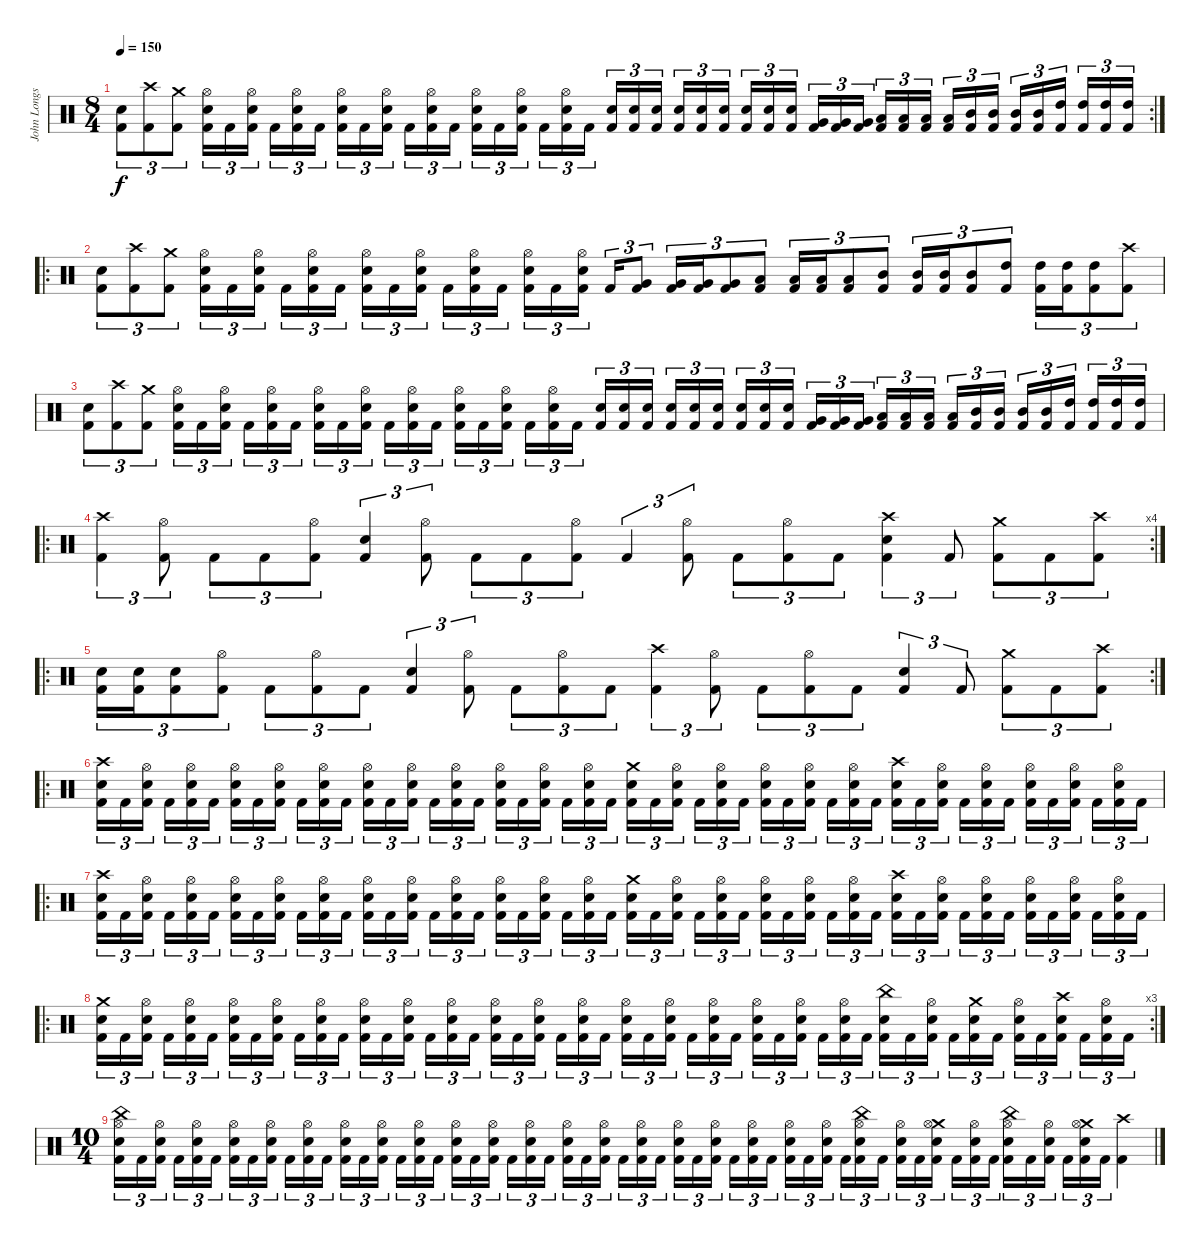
\track ("John Longstreth" "John Longs") {instrument percussion}
\staff {score}
\articulation defaults
\rc 2
\ts (8 4)
\tempo 150
\clef neutral
\ks c
("Electric Snare (hit)" "Kick (hit) 2").8{tu (3 2) dy f} ("Crash high (hit)" "Kick (hit) 2").8{tu (3 2)} ("Crash medium (hit)" "Kick (hit) 2").8{tu (3 2)} ("Hi-Hat (open)" "Electric Snare (hit)" "Kick (hit) 2").16{tu (3 2)} "Kick (hit) 2".16{tu (3 2)} ("Hi-Hat (open)" "Electric Snare (hit)" "Kick (hit) 2").16{tu (3 2) beam splitsecondary} "Kick (hit) 2".16{tu (3 2)} ("Hi-Hat (open)" "Electric Snare (hit)" "Kick (hit) 2").16{tu (3 2)} "Kick (hit) 2".16{tu (3 2)} ("Hi-Hat (open)" "Electric Snare (hit)" "Kick (hit) 2").16{tu (3 2)} "Kick (hit) 2".16{tu (3 2)} ("Hi-Hat (open)" "Electric Snare (hit)" "Kick (hit) 2").16{tu (3 2) beam splitsecondary} "Kick (hit) 2".16{tu (3 2)} ("Hi-Hat (open)" "Electric Snare (hit)" "Kick (hit) 2").16{tu (3 2)} "Kick (hit) 2".16{tu (3 2)} ("Hi-Hat (open)" "Electric Snare (hit)" "Kick (hit) 2").16{tu (3 2)} "Kick (hit) 2".16{tu (3 2)} ("Hi-Hat (open)" "Electric Snare (hit)" "Kick (hit) 2").16{tu (3 2) beam splitsecondary} "Kick (hit) 2".16{tu (3 2)} ("Hi-Hat (open)" "Electric Snare (hit)" "Kick (hit) 2").16{tu (3 2)} "Kick (hit) 2".16{tu (3 2)} ("Electric Snare (hit)" "Kick (hit) 2").16{tu (3 2)} ("Electric Snare (hit)" "Kick (hit) 2").16{tu (3 2)} ("Electric Snare (hit)" "Kick (hit) 2").16{tu (3 2) beam splitsecondary} ("Electric Snare (hit)" "Kick (hit) 2").16{tu (3 2)} ("Electric Snare (hit)" "Kick (hit) 2").16{tu (3 2)} ("Electric Snare (hit)" "Kick (hit) 2").16{tu (3 2)} ("Electric Snare (hit)" "Kick (hit) 2").16{tu (3 2)} ("Electric Snare (hit)" "Kick (hit) 2").16{tu (3 2)} ("Electric Snare (hit)" "Kick (hit) 2").16{tu (3 2) beam splitsecondary} ("Very Low Tom (hit)" "Kick (hit) 2").16{tu (3 2)} ("Very Low Tom (hit)" "Kick (hit) 2").16{tu (3 2)} ("Very Low Tom (hit)" "Kick (hit) 2").16{tu (3 2)} ("Low Tom (hit)" "Kick (hit) 2").16{tu (3 2)} ("Low Tom (hit)" "Kick (hit) 2").16{tu (3 2)} ("Low Tom (hit)" "Kick (hit) 2").16{tu (3 2) beam splitsecondary} ("Low Tom (hit)" "Kick (hit) 2").16{tu (3 2)} ("Mid Tom (hit)" "Kick (hit) 2").16{tu (3 2)} ("Mid Tom (hit)" "Kick (hit) 2").16{tu (3 2)} ("Mid Tom (hit)" "Kick (hit) 2").16{tu (3 2)} ("Mid Tom (hit)" "Kick (hit) 2").16{tu (3 2)} ("High Tom (hit)" "Kick (hit) 2").16{tu (3 2) beam splitsecondary} ("High Tom (hit)" "Kick (hit) 2").16{tu (3 2)} ("High Tom (hit)" "Kick (hit) 2").16{tu (3 2)} ("High Tom (hit)" "Kick (hit) 2").16{tu (3 2)} |
\ro
("Electric Snare (hit)" "Kick (hit) 2").8{tu (3 2)} ("Crash high (hit)" "Kick (hit) 2").8{tu (3 2)} ("Crash medium (hit)" "Kick (hit) 2").8{tu (3 2)} ("Hi-Hat (open)" "Electric Snare (hit)" "Kick (hit) 2").16{tu (3 2)} "Kick (hit) 2".16{tu (3 2)} ("Hi-Hat (open)" "Electric Snare (hit)" "Kick (hit) 2").16{tu (3 2) beam splitsecondary} "Kick (hit) 2".16{tu (3 2)} ("Hi-Hat (open)" "Electric Snare (hit)" "Kick (hit) 2").16{tu (3 2)} "Kick (hit) 2".16{tu (3 2)} ("Hi-Hat (open)" "Electric Snare (hit)" "Kick (hit) 2").16{tu (3 2)} "Kick (hit) 2".16{tu (3 2)} ("Hi-Hat (open)" "Electric Snare (hit)" "Kick (hit) 2").16{tu (3 2) beam splitsecondary} "Kick (hit) 2".16{tu (3 2)} ("Hi-Hat (open)" "Electric Snare (hit)" "Kick (hit) 2").16{tu (3 2)} "Kick (hit) 2".16{tu (3 2)} ("Hi-Hat (open)" "Electric Snare (hit)" "Kick (hit) 2").16{tu (3 2)} "Kick (hit) 2".16{tu (3 2)} ("Hi-Hat (open)" "Electric Snare (hit)" "Kick (hit) 2").16{tu (3 2) beam splitsecondary} "Kick (hit) 2".16{tu (3 2)} ("Very Low Tom (hit)" "Kick (hit) 2").8{tu (3 2)} ("Very Low Tom (hit)" "Kick (hit) 2").16{tu (3 2)} ("Very Low Tom (hit)" "Kick (hit) 2").16{tu (3 2)} ("Very Low Tom (hit)" "Kick (hit) 2").8{tu (3 2)} ("Low Tom (hit)" "Kick (hit) 2").8{tu (3 2)} ("Low Tom (hit)" "Kick (hit) 2").16{tu (3 2)} ("Low Tom (hit)" "Kick (hit) 2").16{tu (3 2)} ("Low Tom (hit)" "Kick (hit) 2").8{tu (3 2)} ("Mid Tom (hit)" "Kick (hit) 2").8{tu (3 2)} ("Mid Tom (hit)" "Kick (hit) 2").16{tu (3 2)} ("Mid Tom (hit)" "Kick (hit) 2").16{tu (3 2)} ("Mid Tom (hit)" "Kick (hit) 2").8{tu (3 2)} ("High Tom (hit)" "Kick (hit) 2").8{tu (3 2)} ("High Tom (hit)" "Kick (hit) 2").16{tu (3 2)} ("High Tom (hit)" "Kick (hit) 2").16{tu (3 2)} ("High Tom (hit)" "Kick (hit) 2").8{tu (3 2)} ("Crash high (hit)" "Kick (hit) 2").8{tu (3 2)} |
("Electric Snare (hit)" "Kick (hit) 2").8{tu (3 2)} ("Crash high (hit)" "Kick (hit) 2").8{tu (3 2)} ("Crash medium (hit)" "Kick (hit) 2").8{tu (3 2)} ("Hi-Hat (open)" "Electric Snare (hit)" "Kick (hit) 2").16{tu (3 2)} "Kick (hit) 2".16{tu (3 2)} ("Hi-Hat (open)" "Electric Snare (hit)" "Kick (hit) 2").16{tu (3 2) beam splitsecondary} "Kick (hit) 2".16{tu (3 2)} ("Hi-Hat (open)" "Electric Snare (hit)" "Kick (hit) 2").16{tu (3 2)} "Kick (hit) 2".16{tu (3 2)} ("Hi-Hat (open)" "Electric Snare (hit)" "Kick (hit) 2").16{tu (3 2)} "Kick (hit) 2".16{tu (3 2)} ("Hi-Hat (open)" "Electric Snare (hit)" "Kick (hit) 2").16{tu (3 2) beam splitsecondary} "Kick (hit) 2".16{tu (3 2)} ("Hi-Hat (open)" "Electric Snare (hit)" "Kick (hit) 2").16{tu (3 2)} "Kick (hit) 2".16{tu (3 2)} ("Hi-Hat (open)" "Electric Snare (hit)" "Kick (hit) 2").16{tu (3 2)} "Kick (hit) 2".16{tu (3 2)} ("Hi-Hat (open)" "Electric Snare (hit)" "Kick (hit) 2").16{tu (3 2) beam splitsecondary} "Kick (hit) 2".16{tu (3 2)} ("Hi-Hat (open)" "Electric Snare (hit)" "Kick (hit) 2").16{tu (3 2)} "Kick (hit) 2".16{tu (3 2)} ("Electric Snare (hit)" "Kick (hit) 2").16{tu (3 2)} ("Electric Snare (hit)" "Kick (hit) 2").16{tu (3 2)} ("Electric Snare (hit)" "Kick (hit) 2").16{tu (3 2) beam splitsecondary} ("Electric Snare (hit)" "Kick (hit) 2").16{tu (3 2)} ("Electric Snare (hit)" "Kick (hit) 2").16{tu (3 2)} ("Electric Snare (hit)" "Kick (hit) 2").16{tu (3 2)} ("Electric Snare (hit)" "Kick (hit) 2").16{tu (3 2)} ("Electric Snare (hit)" "Kick (hit) 2").16{tu (3 2)} ("Electric Snare (hit)" "Kick (hit) 2").16{tu (3 2) beam splitsecondary} ("Very Low Tom (hit)" "Kick (hit) 2").16{tu (3 2)} ("Very Low Tom (hit)" "Kick (hit) 2").16{tu (3 2)} ("Very Low Tom (hit)" "Kick (hit) 2").16{tu (3 2)} ("Low Tom (hit)" "Kick (hit) 2").16{tu (3 2)} ("Low Tom (hit)" "Kick (hit) 2").16{tu (3 2)} ("Low Tom (hit)" "Kick (hit) 2").16{tu (3 2) beam splitsecondary} ("Low Tom (hit)" "Kick (hit) 2").16{tu (3 2)} ("Mid Tom (hit)" "Kick (hit) 2").16{tu (3 2)} ("Mid Tom (hit)" "Kick (hit) 2").16{tu (3 2)} ("Mid Tom (hit)" "Kick (hit) 2").16{tu (3 2)} ("Mid Tom (hit)" "Kick (hit) 2").16{tu (3 2)} ("High Tom (hit)" "Kick (hit) 2").16{tu (3 2) beam splitsecondary} ("High Tom (hit)" "Kick (hit) 2").16{tu (3 2)} ("High Tom (hit)" "Kick (hit) 2").16{tu (3 2)} ("High Tom (hit)" "Kick (hit) 2").16{tu (3 2)} |
\ro
\rc 4
("Crash high (hit)" "Kick (hit) 2").4{tu (3 2)} ("Hi-Hat (open)" "Kick (hit) 2").8{tu (3 2)} "Kick (hit) 2".8{tu (3 2)} "Kick (hit) 2".8{tu (3 2)} ("Hi-Hat (open)" "Kick (hit) 2").8{tu (3 2)} ("Electric Snare (hit)" "Kick (hit) 2").4{tu (3 2)} ("Hi-Hat (open)" "Kick (hit) 2").8{tu (3 2)} "Kick (hit) 2".8{tu (3 2)} "Kick (hit) 2".8{tu (3 2)} ("Hi-Hat (open)" "Kick (hit) 2").8{tu (3 2)} "Kick (hit) 2".4{tu (3 2)} ("Hi-Hat (open)" "Kick (hit) 2").8{tu (3 2)} "Kick (hit) 2".8{tu (3 2)} ("Hi-Hat (open)" "Kick (hit) 2").8{tu (3 2)} "Kick (hit) 2".8{tu (3 2)} ("Crash high (hit)" "Electric Snare (hit)" "Kick (hit) 2").4{tu (3 2)} "Kick (hit) 2".8{tu (3 2)} ("Crash medium (hit)" "Kick (hit) 2").8{tu (3 2)} "Kick (hit) 2".8{tu (3 2)} ("Crash high (hit)" "Kick (hit) 2").8{tu (3 2)} |
\ro
\rc 2
("Electric Snare (hit)" "Kick (hit) 2").16{tu (3 2)} ("Electric Snare (hit)" "Kick (hit) 2").16{tu (3 2)} ("Electric Snare (hit)" "Kick (hit) 2").8{tu (3 2)} ("Hi-Hat (open)" "Kick (hit) 2").8{tu (3 2)} "Kick (hit) 2".8{tu (3 2)} ("Hi-Hat (open)" "Kick (hit) 2").8{tu (3 2)} "Kick (hit) 2".8{tu (3 2)} ("Electric Snare (hit)" "Kick (hit) 2").4{tu (3 2)} ("Hi-Hat (open)" "Kick (hit) 2").8{tu (3 2)} "Kick (hit) 2".8{tu (3 2)} ("Hi-Hat (open)" "Kick (hit) 2").8{tu (3 2)} "Kick (hit) 2".8{tu (3 2)} ("Crash high (hit)" "Kick (hit) 2").4{tu (3 2)} ("Hi-Hat (open)" "Kick (hit) 2").8{tu (3 2)} "Kick (hit) 2".8{tu (3 2)} ("Hi-Hat (open)" "Kick (hit) 2").8{tu (3 2)} "Kick (hit) 2".8{tu (3 2)} ("Electric Snare (hit)" "Kick (hit) 2").4{tu (3 2)} "Kick (hit) 2".8{tu (3 2)} ("Crash medium (hit)" "Kick (hit) 2").8{tu (3 2)} "Kick (hit) 2".8{tu (3 2)} ("Crash high (hit)" "Kick (hit) 2").8{tu (3 2)} |
\ro
("Crash high (hit)" "Electric Snare (hit)" "Kick (hit) 2").16{tu (3 2)} "Kick (hit) 2".16{tu (3 2)} ("Hi-Hat (open)" "Electric Snare (hit)" "Kick (hit) 2").16{tu (3 2) beam splitsecondary} "Kick (hit) 2".16{tu (3 2)} ("Hi-Hat (open)" "Electric Snare (hit)" "Kick (hit) 2").16{tu (3 2)} "Kick (hit) 2".16{tu (3 2)} ("Hi-Hat (open)" "Electric Snare (hit)" "Kick (hit) 2").16{tu (3 2)} "Kick (hit) 2".16{tu (3 2)} ("Hi-Hat (open)" "Electric Snare (hit)" "Kick (hit) 2").16{tu (3 2) beam splitsecondary} "Kick (hit) 2".16{tu (3 2)} ("Hi-Hat (open)" "Electric Snare (hit)" "Kick (hit) 2").16{tu (3 2)} "Kick (hit) 2".16{tu (3 2)} ("Hi-Hat (open)" "Electric Snare (hit)" "Kick (hit) 2").16{tu (3 2)} "Kick (hit) 2".16{tu (3 2)} ("Hi-Hat (open)" "Electric Snare (hit)" "Kick (hit) 2").16{tu (3 2) beam splitsecondary} "Kick (hit) 2".16{tu (3 2)} ("Hi-Hat (open)" "Electric Snare (hit)" "Kick (hit) 2").16{tu (3 2)} "Kick (hit) 2".16{tu (3 2)} ("Hi-Hat (open)" "Electric Snare (hit)" "Kick (hit) 2").16{tu (3 2)} "Kick (hit) 2".16{tu (3 2)} ("Hi-Hat (open)" "Electric Snare (hit)" "Kick (hit) 2").16{tu (3 2) beam splitsecondary} "Kick (hit) 2".16{tu (3 2)} ("Hi-Hat (open)" "Electric Snare (hit)" "Kick (hit) 2").16{tu (3 2)} "Kick (hit) 2".16{tu (3 2)} ("Crash medium (hit)" "Electric Snare (hit)" "Kick (hit) 2").16{tu (3 2)} "Kick (hit) 2".16{tu (3 2)} ("Hi-Hat (open)" "Electric Snare (hit)" "Kick (hit) 2").16{tu (3 2) beam splitsecondary} "Kick (hit) 2".16{tu (3 2)} ("Hi-Hat (open)" "Electric Snare (hit)" "Kick (hit) 2").16{tu (3 2)} "Kick (hit) 2".16{tu (3 2)} ("Hi-Hat (open)" "Electric Snare (hit)" "Kick (hit) 2").16{tu (3 2)} "Kick (hit) 2".16{tu (3 2)} ("Hi-Hat (open)" "Electric Snare (hit)" "Kick (hit) 2").16{tu (3 2) beam splitsecondary} "Kick (hit) 2".16{tu (3 2)} ("Hi-Hat (open)" "Electric Snare (hit)" "Kick (hit) 2").16{tu (3 2)} "Kick (hit) 2".16{tu (3 2)} ("Crash high (hit)" "Electric Snare (hit)" "Kick (hit) 2").16{tu (3 2)} "Kick (hit) 2".16{tu (3 2)} ("Hi-Hat (open)" "Electric Snare (hit)" "Kick (hit) 2").16{tu (3 2) beam splitsecondary} "Kick (hit) 2".16{tu (3 2)} ("Hi-Hat (open)" "Electric Snare (hit)" "Kick (hit) 2").16{tu (3 2)} "Kick (hit) 2".16{tu (3 2)} ("Hi-Hat (open)" "Electric Snare (hit)" "Kick (hit) 2").16{tu (3 2)} "Kick (hit) 2".16{tu (3 2)} ("Hi-Hat (open)" "Electric Snare (hit)" "Kick (hit) 2").16{tu (3 2) beam splitsecondary} "Kick (hit) 2".16{tu (3 2)} ("Hi-Hat (open)" "Electric Snare (hit)" "Kick (hit) 2").16{tu (3 2)} "Kick (hit) 2".16{tu (3 2)} |
\ro
("Crash high (hit)" "Electric Snare (hit)" "Kick (hit) 2").16{tu (3 2)} "Kick (hit) 2".16{tu (3 2)} ("Hi-Hat (open)" "Electric Snare (hit)" "Kick (hit) 2").16{tu (3 2) beam splitsecondary} "Kick (hit) 2".16{tu (3 2)} ("Hi-Hat (open)" "Electric Snare (hit)" "Kick (hit) 2").16{tu (3 2)} "Kick (hit) 2".16{tu (3 2)} ("Hi-Hat (open)" "Electric Snare (hit)" "Kick (hit) 2").16{tu (3 2)} "Kick (hit) 2".16{tu (3 2)} ("Hi-Hat (open)" "Electric Snare (hit)" "Kick (hit) 2").16{tu (3 2) beam splitsecondary} "Kick (hit) 2".16{tu (3 2)} ("Hi-Hat (open)" "Electric Snare (hit)" "Kick (hit) 2").16{tu (3 2)} "Kick (hit) 2".16{tu (3 2)} ("Hi-Hat (open)" "Electric Snare (hit)" "Kick (hit) 2").16{tu (3 2)} "Kick (hit) 2".16{tu (3 2)} ("Hi-Hat (open)" "Electric Snare (hit)" "Kick (hit) 2").16{tu (3 2) beam splitsecondary} "Kick (hit) 2".16{tu (3 2)} ("Hi-Hat (open)" "Electric Snare (hit)" "Kick (hit) 2").16{tu (3 2)} "Kick (hit) 2".16{tu (3 2)} ("Hi-Hat (open)" "Electric Snare (hit)" "Kick (hit) 2").16{tu (3 2)} "Kick (hit) 2".16{tu (3 2)} ("Hi-Hat (open)" "Electric Snare (hit)" "Kick (hit) 2").16{tu (3 2) beam splitsecondary} "Kick (hit) 2".16{tu (3 2)} ("Hi-Hat (open)" "Electric Snare (hit)" "Kick (hit) 2").16{tu (3 2)} "Kick (hit) 2".16{tu (3 2)} ("Crash medium (hit)" "Electric Snare (hit)" "Kick (hit) 2").16{tu (3 2)} "Kick (hit) 2".16{tu (3 2)} ("Hi-Hat (open)" "Electric Snare (hit)" "Kick (hit) 2").16{tu (3 2) beam splitsecondary} "Kick (hit) 2".16{tu (3 2)} ("Hi-Hat (open)" "Electric Snare (hit)" "Kick (hit) 2").16{tu (3 2)} "Kick (hit) 2".16{tu (3 2)} ("Hi-Hat (open)" "Electric Snare (hit)" "Kick (hit) 2").16{tu (3 2)} "Kick (hit) 2".16{tu (3 2)} ("Hi-Hat (open)" "Electric Snare (hit)" "Kick (hit) 2").16{tu (3 2) beam splitsecondary} "Kick (hit) 2".16{tu (3 2)} ("Hi-Hat (open)" "Electric Snare (hit)" "Kick (hit) 2").16{tu (3 2)} "Kick (hit) 2".16{tu (3 2)} ("Crash high (hit)" "Electric Snare (hit)" "Kick (hit) 2").16{tu (3 2)} "Kick (hit) 2".16{tu (3 2)} ("Hi-Hat (open)" "Electric Snare (hit)" "Kick (hit) 2").16{tu (3 2) beam splitsecondary} "Kick (hit) 2".16{tu (3 2)} ("Hi-Hat (open)" "Electric Snare (hit)" "Kick (hit) 2").16{tu (3 2)} "Kick (hit) 2".16{tu (3 2)} ("Hi-Hat (open)" "Electric Snare (hit)" "Kick (hit) 2").16{tu (3 2)} "Kick (hit) 2".16{tu (3 2)} ("Hi-Hat (open)" "Electric Snare (hit)" "Kick (hit) 2").16{tu (3 2) beam splitsecondary} "Kick (hit) 2".16{tu (3 2)} ("Hi-Hat (open)" "Electric Snare (hit)" "Kick (hit) 2").16{tu (3 2)} "Kick (hit) 2".16{tu (3 2)} |
\ro
\rc 3
("Crash medium (hit)" "Electric Snare (hit)" "Kick (hit) 2").16{tu (3 2)} "Kick (hit) 2".16{tu (3 2)} ("Hi-Hat (open)" "Electric Snare (hit)" "Kick (hit) 2").16{tu (3 2) beam splitsecondary} "Kick (hit) 2".16{tu (3 2)} ("Hi-Hat (open)" "Electric Snare (hit)" "Kick (hit) 2").16{tu (3 2)} "Kick (hit) 2".16{tu (3 2)} ("Hi-Hat (open)" "Electric Snare (hit)" "Kick (hit) 2").16{tu (3 2)} "Kick (hit) 2".16{tu (3 2)} ("Hi-Hat (open)" "Electric Snare (hit)" "Kick (hit) 2").16{tu (3 2) beam splitsecondary} "Kick (hit) 2".16{tu (3 2)} ("Hi-Hat (open)" "Electric Snare (hit)" "Kick (hit) 2").16{tu (3 2)} "Kick (hit) 2".16{tu (3 2)} ("Hi-Hat (open)" "Electric Snare (hit)" "Kick (hit) 2").16{tu (3 2)} "Kick (hit) 2".16{tu (3 2)} ("Hi-Hat (open)" "Electric Snare (hit)" "Kick (hit) 2").16{tu (3 2) beam splitsecondary} "Kick (hit) 2".16{tu (3 2)} ("Hi-Hat (open)" "Electric Snare (hit)" "Kick (hit) 2").16{tu (3 2)} "Kick (hit) 2".16{tu (3 2)} ("Hi-Hat (open)" "Electric Snare (hit)" "Kick (hit) 2").16{tu (3 2)} "Kick (hit) 2".16{tu (3 2)} ("Hi-Hat (open)" "Electric Snare (hit)" "Kick (hit) 2").16{tu (3 2) beam splitsecondary} "Kick (hit) 2".16{tu (3 2)} ("Hi-Hat (open)" "Electric Snare (hit)" "Kick (hit) 2").16{tu (3 2)} "Kick (hit) 2".16{tu (3 2)} ("Hi-Hat (open)" "Electric Snare (hit)" "Kick (hit) 2").16{tu (3 2)} "Kick (hit) 2".16{tu (3 2)} ("Hi-Hat (open)" "Electric Snare (hit)" "Kick (hit) 2").16{tu (3 2) beam splitsecondary} "Kick (hit) 2".16{tu (3 2)} ("Hi-Hat (open)" "Electric Snare (hit)" "Kick (hit) 2").16{tu (3 2)} "Kick (hit) 2".16{tu (3 2)} ("Hi-Hat (open)" "Electric Snare (hit)" "Kick (hit) 2").16{tu (3 2)} "Kick (hit) 2".16{tu (3 2)} ("Hi-Hat (open)" "Electric Snare (hit)" "Kick (hit) 2").16{tu (3 2) beam splitsecondary} "Kick (hit) 2".16{tu (3 2)} ("Hi-Hat (open)" "Electric Snare (hit)" "Kick (hit) 2").16{tu (3 2)} "Kick (hit) 2".16{tu (3 2)} ("China (hit)" "Electric Snare (hit)" "Kick (hit) 2").16{tu (3 2)} "Kick (hit) 2".16{tu (3 2)} ("Hi-Hat (open)" "Electric Snare (hit)" "Kick (hit) 2").16{tu (3 2) beam splitsecondary} "Kick (hit) 2".16{tu (3 2)} ("Crash medium (hit)" "Electric Snare (hit)" "Kick (hit) 2").16{tu (3 2)} "Kick (hit) 2".16{tu (3 2)} ("Hi-Hat (open)" "Electric Snare (hit)" "Kick (hit) 2").16{tu (3 2)} "Kick (hit) 2".16{tu (3 2)} ("Crash high (hit)" "Electric Snare (hit)" "Kick (hit) 2").16{tu (3 2) beam splitsecondary} "Kick (hit) 2".16{tu (3 2)} ("Hi-Hat (open)" "Electric Snare (hit)" "Kick (hit) 2").16{tu (3 2)} "Kick (hit) 2".16{tu (3 2)} |
\ts (10 4)
("China (hit)" "Hi-Hat (open)" "Electric Snare (hit)" "Kick (hit) 2").16{tu (3 2)} "Kick (hit) 2".16{tu (3 2)} ("Hi-Hat (open)" "Electric Snare (hit)" "Kick (hit) 2").16{tu (3 2) beam splitsecondary} "Kick (hit) 2".16{tu (3 2)} ("Hi-Hat (open)" "Electric Snare (hit)" "Kick (hit) 2").16{tu (3 2)} "Kick (hit) 2".16{tu (3 2)} ("Hi-Hat (open)" "Electric Snare (hit)" "Kick (hit) 2").16{tu (3 2)} "Kick (hit) 2".16{tu (3 2)} ("Hi-Hat (open)" "Electric Snare (hit)" "Kick (hit) 2").16{tu (3 2) beam splitsecondary} "Kick (hit) 2".16{tu (3 2)} ("Hi-Hat (open)" "Electric Snare (hit)" "Kick (hit) 2").16{tu (3 2)} "Kick (hit) 2".16{tu (3 2)} ("Hi-Hat (open)" "Electric Snare (hit)" "Kick (hit) 2").16{tu (3 2)} "Kick (hit) 2".16{tu (3 2)} ("Hi-Hat (open)" "Electric Snare (hit)" "Kick (hit) 2").16{tu (3 2) beam splitsecondary} "Kick (hit) 2".16{tu (3 2)} ("Hi-Hat (open)" "Electric Snare (hit)" "Kick (hit) 2").16{tu (3 2)} "Kick (hit) 2".16{tu (3 2)} ("Hi-Hat (open)" "Electric Snare (hit)" "Kick (hit) 2").16{tu (3 2)} "Kick (hit) 2".16{tu (3 2)} ("Hi-Hat (open)" "Electric Snare (hit)" "Kick (hit) 2").16{tu (3 2) beam splitsecondary} "Kick (hit) 2".16{tu (3 2)} ("Hi-Hat (open)" "Electric Snare (hit)" "Kick (hit) 2").16{tu (3 2)} "Kick (hit) 2".16{tu (3 2)} ("Hi-Hat (open)" "Electric Snare (hit)" "Kick (hit) 2").16{tu (3 2)} "Kick (hit) 2".16{tu (3 2)} ("Hi-Hat (open)" "Electric Snare (hit)" "Kick (hit) 2").16{tu (3 2) beam splitsecondary} "Kick (hit) 2".16{tu (3 2)} ("Hi-Hat (open)" "Electric Snare (hit)" "Kick (hit) 2").16{tu (3 2)} "Kick (hit) 2".16{tu (3 2)} ("Hi-Hat (open)" "Electric Snare (hit)" "Kick (hit) 2").16{tu (3 2)} "Kick (hit) 2".16{tu (3 2)} ("Hi-Hat (open)" "Electric Snare (hit)" "Kick (hit) 2").16{tu (3 2) beam splitsecondary} "Kick (hit) 2".16{tu (3 2)} ("Hi-Hat (open)" "Electric Snare (hit)" "Kick (hit) 2").16{tu (3 2)} "Kick (hit) 2".16{tu (3 2)} ("Hi-Hat (open)" "Electric Snare (hit)" "Kick (hit) 2").16{tu (3 2)} "Kick (hit) 2".16{tu (3 2)} ("Hi-Hat (open)" "Electric Snare (hit)" "Kick (hit) 2").16{tu (3 2) beam splitsecondary} "Kick (hit) 2".16{tu (3 2)} ("China (hit)" "Hi-Hat (open)" "Electric Snare (hit)" "Kick (hit) 2").16{tu (3 2)} "Kick (hit) 2".16{tu (3 2)} ("Hi-Hat (open)" "Electric Snare (hit)" "Kick (hit) 2").16{tu (3 2)} "Kick (hit) 2".16{tu (3 2)} ("Crash medium (hit)" "Hi-Hat (open)" "Electric Snare (hit)" "Kick (hit) 2").16{tu (3 2) beam splitsecondary} "Kick (hit) 2".16{tu (3 2)} ("Hi-Hat (open)" "Electric Snare (hit)" "Kick (hit) 2").16{tu (3 2)} "Kick (hit) 2".16{tu (3 2)} ("China (hit)" "Hi-Hat (open)" "Electric Snare (hit)" "Kick (hit) 2").16{tu (3 2)} "Kick (hit) 2".16{tu (3 2)} ("Hi-Hat (open)" "Electric Snare (hit)" "Kick (hit) 2").16{tu (3 2) beam splitsecondary} "Kick (hit) 2".16{tu (3 2)} ("Crash medium (hit)" "Hi-Hat (open)" "Electric Snare (hit)" "Kick (hit) 2").16{tu (3 2)} "Kick (hit) 2".16{tu (3 2)} ("Crash high (hit)" "Kick (hit) 2").4
